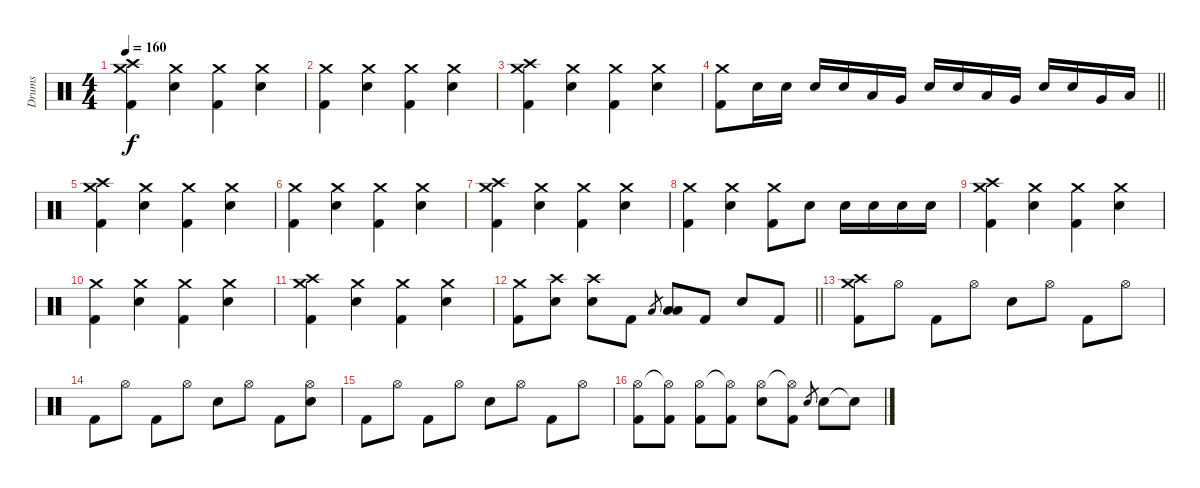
\track ("Drums" "Drums") {instrument percussion}
\staff {score}
\articulation defaults
\ts (4 4)
\tempo 160
\clef neutral
\ks c
("Kick (hit) 2" "Crash medium (hit)" "Crash high (hit)").4{dy f} ("Electric Snare (hit)" "Crash medium (hit)").4 ("Kick (hit) 2" "Crash medium (hit)").4 ("Electric Snare (hit)" "Crash medium (hit)").4 |
("Kick (hit) 2" "Crash medium (hit)").4 ("Electric Snare (hit)" "Crash medium (hit)").4 ("Kick (hit) 2" "Crash medium (hit)").4 ("Electric Snare (hit)" "Crash medium (hit)").4 |
("Kick (hit) 2" "Crash medium (hit)" "Crash high (hit)").4 ("Electric Snare (hit)" "Crash medium (hit)").4 ("Kick (hit) 2" "Crash medium (hit)").4 ("Electric Snare (hit)" "Crash medium (hit)").4 |
\barLineRight lightlight
("Kick (hit) 2" "Crash medium (hit)").8 "Electric Snare (hit)".16 "Electric Snare (hit)".16 "Electric Snare (hit)".16 "Electric Snare (hit)".16 "Low Tom (hit)".16 "Very Low Tom (hit)".16 "Electric Snare (hit)".16 "Electric Snare (hit)".16 "Low Tom (hit)".16 "Very Low Tom (hit)".16 "Electric Snare (hit)".16 "Electric Snare (hit)".16 "Very Low Tom (hit)".16 "Low Floor Tom (hit)".16 |
("Kick (hit) 2" "Crash medium (hit)" "Crash high (hit)").4 ("Electric Snare (hit)" "Crash medium (hit)").4 ("Kick (hit) 2" "Crash medium (hit)").4 ("Electric Snare (hit)" "Crash medium (hit)").4 |
("Kick (hit) 2" "Crash medium (hit)").4 ("Electric Snare (hit)" "Crash medium (hit)").4 ("Kick (hit) 2" "Crash medium (hit)").4 ("Electric Snare (hit)" "Crash medium (hit)").4 |
("Kick (hit) 2" "Crash medium (hit)" "Crash high (hit)").4 ("Electric Snare (hit)" "Crash medium (hit)").4 ("Kick (hit) 2" "Crash medium (hit)").4 ("Electric Snare (hit)" "Crash medium (hit)").4 |
("Kick (hit) 2" "Crash medium (hit)").4 ("Electric Snare (hit)" "Crash medium (hit)").4 ("Kick (hit) 2" "Crash medium (hit)").8 "Electric Snare (hit)".8 "Electric Snare (hit)".16 "Electric Snare (hit)".16 "Electric Snare (hit)".16 "Electric Snare (hit)".16 |
("Kick (hit) 2" "Crash medium (hit)" "Crash high (hit)").4 ("Electric Snare (hit)" "Crash medium (hit)").4 ("Kick (hit) 2" "Crash medium (hit)").4 ("Electric Snare (hit)" "Crash medium (hit)").4 |
("Kick (hit) 2" "Crash medium (hit)").4 ("Electric Snare (hit)" "Crash medium (hit)").4 ("Kick (hit) 2" "Crash medium (hit)").4 ("Electric Snare (hit)" "Crash medium (hit)").4 |
("Kick (hit) 2" "Crash medium (hit)" "Crash high (hit)").4 ("Electric Snare (hit)" "Crash medium (hit)").4 ("Kick (hit) 2" "Crash medium (hit)").4 ("Electric Snare (hit)" "Crash medium (hit)").4 |
\barLineRight lightlight
("Kick (hit) 2" "Crash medium (hit)").8 ("Electric Snare (hit)" "Crash high (hit)").8 ("Electric Snare (hit)" "Crash high (hit)").8 "Kick (hit) 2".8 "Low Tom (hit)".8{gr} ("Low Tom (hit)" "Low Floor Tom (hit)").8 "Kick (hit) 2".8 "Electric Snare (hit)".8 "Kick (hit) 2".8 |
("Kick (hit) 2" "Crash medium (hit)" "Crash high (hit)").8 "Hi-Hat (open)".8 "Kick (hit) 2".8 "Hi-Hat (open)".8 "Electric Snare (hit)".8 "Hi-Hat (open)".8 "Kick (hit) 2".8 "Hi-Hat (open)".8 |
"Kick (hit) 2".8 "Hi-Hat (open)".8 "Kick (hit) 2".8 "Hi-Hat (open)".8 "Electric Snare (hit)".8 "Hi-Hat (open)".8 "Kick (hit) 2".8 ("Electric Snare (hit)" "Hi-Hat (open)").8 |
"Kick (hit) 2".8 "Hi-Hat (open)".8 "Kick (hit) 2".8 "Hi-Hat (open)".8 "Electric Snare (hit)".8 "Hi-Hat (open)".8 "Kick (hit) 2".8 "Hi-Hat (open)".8 |
("Kick (hit) 2" "Hi-Hat (open)").8 ("Kick (hit) 2" "Hi-Hat (open)"{t}).8 ("Kick (hit) 2" "Hi-Hat (open)").8 ("Kick (hit) 2" "Hi-Hat (open)"{t}).8 ("Electric Snare (hit)" "Hi-Hat (open)").8 ("Kick (hit) 2" "Hi-Hat (open)"{t}).8 "Electric Snare (hit)".8{gr} "Electric Snare (hit)".8 "Electric Snare (hit)"{t}.8
